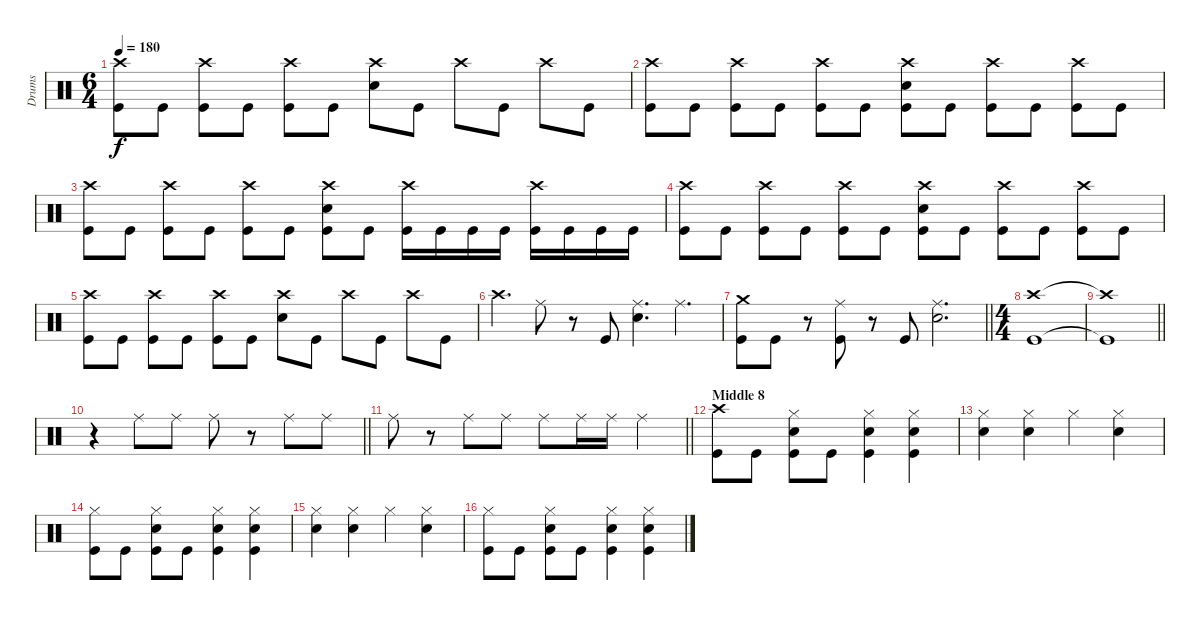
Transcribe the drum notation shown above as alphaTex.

\track ("Drums" "Drums") {instrument percussion}
\staff {score}
\articulation defaults
\ts (6 4)
\tempo 180
\clef neutral
\ks c
("Crash high (hit)" "Kick (hit)").8{dy f} "Kick (hit)".8 ("Crash high (hit)" "Kick (hit)").8 "Kick (hit)".8 ("Crash high (hit)" "Kick (hit)").8 "Kick (hit)".8 ("Crash high (hit)" "Snare (hit) 2").8 "Kick (hit)".8 "Crash high (hit)".8 "Kick (hit)".8 "Crash high (hit)".8 "Kick (hit)".8 |
("Crash high (hit)" "Kick (hit)").8 "Kick (hit)".8 ("Crash high (hit)" "Kick (hit)").8 "Kick (hit)".8 ("Crash high (hit)" "Kick (hit)").8 "Kick (hit)".8 ("Crash high (hit)" "Snare (hit) 2" "Kick (hit)").8 "Kick (hit)".8 ("Crash high (hit)" "Kick (hit)").8 "Kick (hit)".8 ("Crash high (hit)" "Kick (hit)").8 "Kick (hit)".8 |
("Crash high (hit)" "Kick (hit)").8 "Kick (hit)".8 ("Crash high (hit)" "Kick (hit)").8 "Kick (hit)".8 ("Crash high (hit)" "Kick (hit)").8 "Kick (hit)".8 ("Crash high (hit)" "Snare (hit) 2" "Kick (hit)").8 "Kick (hit)".8 ("Crash high (hit)" "Kick (hit)").16 "Kick (hit)".16 "Kick (hit)".16 "Kick (hit)".16 ("Crash high (hit)" "Kick (hit)").16 "Kick (hit)".16 "Kick (hit)".16 "Kick (hit)".16 |
("Crash high (hit)" "Kick (hit)").8 "Kick (hit)".8 ("Crash high (hit)" "Kick (hit)").8 "Kick (hit)".8 ("Crash high (hit)" "Kick (hit)").8 "Kick (hit)".8 ("Crash high (hit)" "Snare (hit) 2" "Kick (hit)").8 "Kick (hit)".8 ("Crash high (hit)" "Kick (hit)").8 "Kick (hit)".8 ("Crash high (hit)" "Kick (hit)").8 "Kick (hit)".8 |
("Crash high (hit)" "Kick (hit)").8 "Kick (hit)".8 ("Crash high (hit)" "Kick (hit)").8 "Kick (hit)".8 ("Crash high (hit)" "Kick (hit)").8 "Kick (hit)".8 ("Crash high (hit)" "Snare (hit) 2").8 "Kick (hit)".8 "Crash high (hit)".8 "Kick (hit)".8 "Crash high (hit)".8 "Kick (hit)".8 |
"Crash high (hit)".4{d} "Ride (middle)".8 r.8 "Kick (hit)".8 ("Ride (middle)" "Snare (hit) 2").4{d} "Ride (middle)".4{d} |
\barLineRight lightlight
("Crash medium (hit)" "Kick (hit)").8 "Kick (hit)".8 r.8 ("Ride (middle)" "Kick (hit)").8 r.8 "Kick (hit)".8 ("Ride (middle)" "Snare (hit) 2").2{d} |
\ts (4 4)
("Crash high (hit)" "Kick (hit)").1 |
\barLineRight lightlight
("Crash high (hit)"{t} "Kick (hit)"{t}).1 |
\barLineRight lightlight
r.4 "Ride (middle)".8 "Ride (middle)".8 "Ride (middle)".8 r.8 "Ride (middle)".8 "Ride (middle)".8 |
\barLineRight lightlight "Ride (middle)".8
r.8 "Ride (middle)".8 "Ride (middle)".8 "Ride (middle)".8 "Ride (middle)".16 "Ride (middle)".16 "Ride (middle)".4 |
\section ("" "Middle 8")
("Crash high (hit)" "Kick (hit)").8 "Kick (hit)".8 ("Hi-Hat (closed)" "Snare (hit) 2" "Kick (hit)").8 "Kick (hit)".8 ("Hi-Hat (closed)" "Snare (hit) 2" "Kick (hit)").4 ("Hi-Hat (closed)" "Snare (hit) 2" "Kick (hit)").4 |
("Hi-Hat (closed)" "Snare (hit) 2").4 ("Hi-Hat (closed)" "Snare (hit) 2").4 "Hi-Hat (closed)".4 ("Hi-Hat (closed)" "Snare (hit) 2").4 |
("Hi-Hat (closed)" "Kick (hit)").8 "Kick (hit)".8 ("Hi-Hat (closed)" "Snare (hit) 2" "Kick (hit)").8 "Kick (hit)".8 ("Hi-Hat (closed)" "Snare (hit) 2" "Kick (hit)").4 ("Hi-Hat (closed)" "Snare (hit) 2" "Kick (hit)").4 |
("Hi-Hat (closed)" "Snare (hit) 2").4 ("Hi-Hat (closed)" "Snare (hit) 2").4 "Hi-Hat (closed)".4 ("Hi-Hat (closed)" "Snare (hit) 2").4 |
("Hi-Hat (closed)" "Kick (hit)").8 "Kick (hit)".8 ("Hi-Hat (closed)" "Snare (hit) 2" "Kick (hit)").8 "Kick (hit)".8 ("Hi-Hat (closed)" "Snare (hit) 2" "Kick (hit)").4 ("Hi-Hat (closed)" "Snare (hit) 2" "Kick (hit)").4
